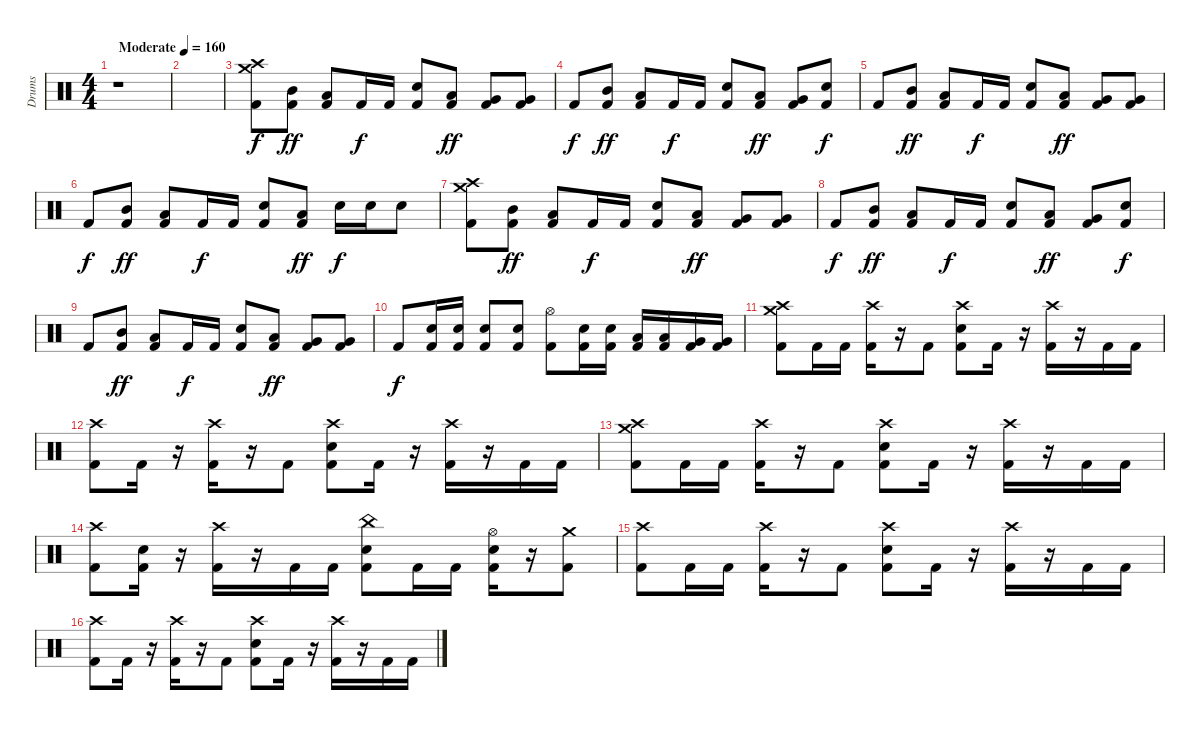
\track ("Drums" "Drums") {instrument percussion}
\staff {score}
\articulation defaults
\ts (4 4)
\tempo (160 "Moderate")
\clef neutral
\ks c
r.1{dy f} |
|
("Crash medium (hit)" "Crash high (hit)" "Kick (hit) 2").8 ("Mid Tom (hit)" "Kick (hit) 2").8{dy ff} ("Low Tom (hit)" "Kick (hit) 2").8 "Kick (hit) 2".16{dy f} "Kick (hit) 2".16 ("Electric Snare (hit)" "Kick (hit) 2").8 ("Low Tom (hit)" "Kick (hit) 2").8{dy ff} ("Very Low Tom (hit)" "Kick (hit) 2").8 ("Very Low Tom (hit)" "Kick (hit) 2").8 |
"Kick (hit) 2".8{dy f} ("Mid Tom (hit)" "Kick (hit) 2").8{dy ff} ("Low Tom (hit)" "Kick (hit) 2").8 "Kick (hit) 2".16{dy f} "Kick (hit) 2".16 ("Electric Snare (hit)" "Kick (hit) 2").8 ("Low Tom (hit)" "Kick (hit) 2").8{dy ff} ("Very Low Tom (hit)" "Kick (hit) 2").8 ("Electric Snare (hit)" "Kick (hit) 2").8{dy f} |
"Kick (hit) 2".8 ("Mid Tom (hit)" "Kick (hit) 2").8{dy ff} ("Low Tom (hit)" "Kick (hit) 2").8 "Kick (hit) 2".16{dy f} "Kick (hit) 2".16 ("Electric Snare (hit)" "Kick (hit) 2").8 ("Low Tom (hit)" "Kick (hit) 2").8{dy ff} ("Very Low Tom (hit)" "Kick (hit) 2").8 ("Very Low Tom (hit)" "Kick (hit) 2").8 |
"Kick (hit) 2".8{dy f} ("Mid Tom (hit)" "Kick (hit) 2").8{dy ff} ("Low Tom (hit)" "Kick (hit) 2").8 "Kick (hit) 2".16{dy f} "Kick (hit) 2".16 ("Electric Snare (hit)" "Kick (hit) 2").8 ("Low Tom (hit)" "Kick (hit) 2").8{dy ff} "Electric Snare (hit)".16{dy f} "Electric Snare (hit)".16 "Electric Snare (hit)".8 |
("Crash high (hit)" "Crash medium (hit)" "Kick (hit) 2").8 ("Mid Tom (hit)" "Kick (hit) 2").8{dy ff} ("Low Tom (hit)" "Kick (hit) 2").8 "Kick (hit) 2".16{dy f} "Kick (hit) 2".16 ("Electric Snare (hit)" "Kick (hit) 2").8 ("Low Tom (hit)" "Kick (hit) 2").8{dy ff} ("Very Low Tom (hit)" "Kick (hit) 2").8 ("Very Low Tom (hit)" "Kick (hit) 2").8 |
"Kick (hit) 2".8{dy f} ("Mid Tom (hit)" "Kick (hit) 2").8{dy ff} ("Low Tom (hit)" "Kick (hit) 2").8 "Kick (hit) 2".16{dy f} "Kick (hit) 2".16 ("Electric Snare (hit)" "Kick (hit) 2").8 ("Low Tom (hit)" "Kick (hit) 2").8{dy ff} ("Very Low Tom (hit)" "Kick (hit) 2").8 ("Electric Snare (hit)" "Kick (hit) 2").8{dy f} |
"Kick (hit) 2".8 ("Mid Tom (hit)" "Kick (hit) 2").8{dy ff} ("Low Tom (hit)" "Kick (hit) 2").8 "Kick (hit) 2".16{dy f} "Kick (hit) 2".16 ("Electric Snare (hit)" "Kick (hit) 2").8 ("Low Tom (hit)" "Kick (hit) 2").8{dy ff} ("Very Low Tom (hit)" "Kick (hit) 2").8 ("Very Low Tom (hit)" "Kick (hit) 2").8 |
"Kick (hit) 2".8{dy f} ("Electric Snare (hit)" "Kick (hit) 2").16 ("Electric Snare (hit)" "Kick (hit) 2").16 ("Electric Snare (hit)" "Kick (hit) 2").8 ("Electric Snare (hit)" "Kick (hit) 2").8 ("Hi-Hat (open)" "Kick (hit) 2").8 ("Electric Snare (hit)" "Kick (hit) 2").16 ("Electric Snare (hit)" "Kick (hit) 2").16 ("Low Tom (hit)" "Kick (hit) 2").16 ("Low Tom (hit)" "Kick (hit) 2").16 ("Very Low Tom (hit)" "Kick (hit) 2").16 ("Very Low Tom (hit)" "Kick (hit) 2").16 |
("Crash high (hit)" "Crash medium (hit)" "Kick (hit) 2").8 "Kick (hit) 2".16 "Kick (hit) 2".16 ("Crash high (hit)" "Kick (hit) 2").16 r.16 "Kick (hit) 2".8 ("Crash high (hit)" "Electric Snare (hit)" "Kick (hit) 2").8 "Kick (hit) 2".16 r.16 ("Crash high (hit)" "Kick (hit) 2").16 r.16 "Kick (hit) 2".16 "Kick (hit) 2".16 |
("Crash high (hit)" "Kick (hit) 2").8 "Kick (hit) 2".16 r.16 ("Crash high (hit)" "Kick (hit) 2").16 r.16 "Kick (hit) 2".8 ("Crash high (hit)" "Electric Snare (hit)" "Kick (hit) 2").8 "Kick (hit) 2".16 r.16 ("Crash high (hit)" "Kick (hit) 2").16 r.16 "Kick (hit) 2".16 "Kick (hit) 2".16 |
("Crash high (hit)" "Crash medium (hit)" "Kick (hit) 2").8 "Kick (hit) 2".16 "Kick (hit) 2".16 ("Crash high (hit)" "Kick (hit) 2").16 r.16 "Kick (hit) 2".8 ("Crash high (hit)" "Electric Snare (hit)" "Kick (hit) 2").8 "Kick (hit) 2".16 r.16 ("Crash high (hit)" "Kick (hit) 2").16 r.16 "Kick (hit) 2".16 "Kick (hit) 2".16 |
("Crash high (hit)" "Kick (hit) 2").8 ("Electric Snare (hit)" "Kick (hit) 2").16 r.16 ("Crash high (hit)" "Kick (hit) 2").16 r.16 "Kick (hit) 2".16 "Kick (hit) 2".16 ("China (hit)" "Electric Snare (hit)" "Kick (hit) 2").8 "Kick (hit) 2".16 "Kick (hit) 2".16 ("Hi-Hat (open)" "Electric Snare (hit)" "Kick (hit) 2").16 r.16 ("Crash medium (hit)" "Kick (hit) 2").8 |
("Crash high (hit)" "Kick (hit) 2").8 "Kick (hit) 2".16 "Kick (hit) 2".16 ("Crash high (hit)" "Kick (hit) 2").16 r.16 "Kick (hit) 2".8 ("Crash high (hit)" "Electric Snare (hit)" "Kick (hit) 2").8 "Kick (hit) 2".16 r.16 ("Crash high (hit)" "Kick (hit) 2").16 r.16 "Kick (hit) 2".16 "Kick (hit) 2".16 |
("Crash high (hit)" "Kick (hit) 2").8 "Kick (hit) 2".16 r.16 ("Crash high (hit)" "Kick (hit) 2").16 r.16 "Kick (hit) 2".8 ("Crash high (hit)" "Electric Snare (hit)" "Kick (hit) 2").8 "Kick (hit) 2".16 r.16 ("Crash high (hit)" "Kick (hit) 2").16 r.16 "Kick (hit) 2".16 "Kick (hit) 2".16
